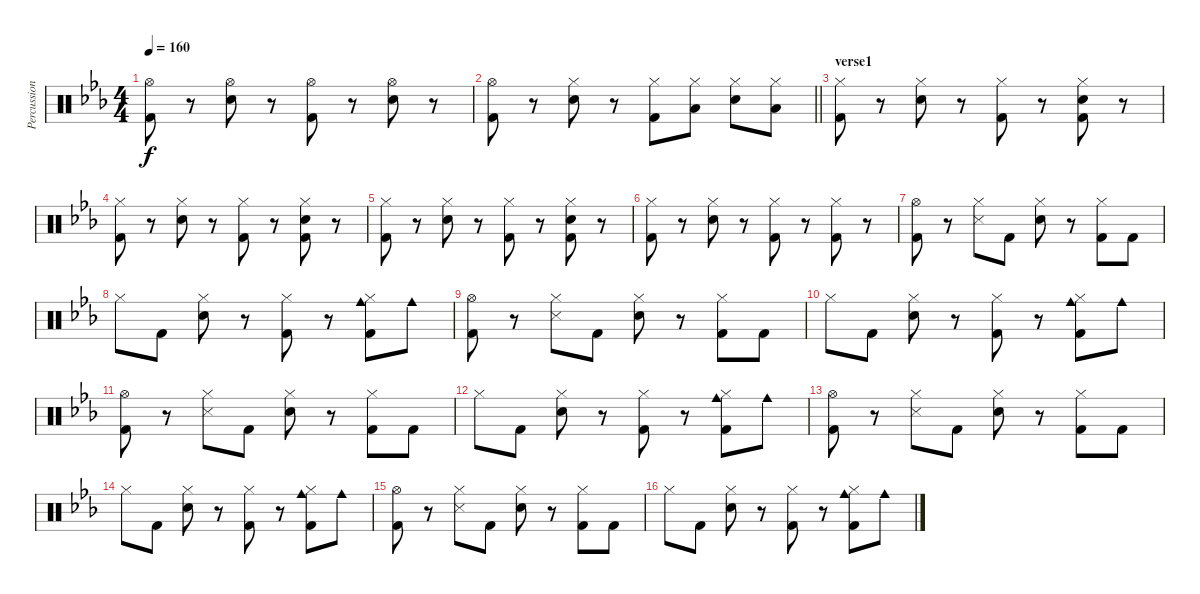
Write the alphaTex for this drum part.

\track ("Percussion" "Percussion") {instrument percussion}
\staff {score}
\articulation defaults
\ts (4 4)
\tempo 160
\clef neutral
\ks cminor
("Hi-Hat (open)" "Kick (hit) 2").8{dy f} r.8 ("Hi-Hat (open)" "Snare (hit) 2").8 r.8 ("Hi-Hat (open)" "Kick (hit) 2").8 r.8 ("Hi-Hat (open)" "Snare (hit) 2").8 r.8 |
\barLineRight lightlight
("Hi-Hat (open)" "Kick (hit) 2").8 r.8 ("Hi-Hat (closed)" "Snare (hit) 2").8 r.8 ("Hi-Hat (closed)" "Kick (hit) 2").8 ("Hi-Hat (closed)" "Low Tom (hit)").8 ("Hi-Hat (closed)" "Snare (hit) 2").8 ("Hi-Hat (closed)" "Low Tom (hit)").8 |
\section ("" "verse1")
("Hi-Hat (closed)" "Kick (hit) 2").8 r.8 ("Hi-Hat (closed)" "Snare (hit) 2").8 r.8 ("Hi-Hat (closed)" "Kick (hit) 2").8 r.8 ("Hi-Hat (closed)" "Snare (hit) 2" "Kick (hit) 2").8 r.8 |
("Hi-Hat (closed)" "Kick (hit) 2").8 r.8 ("Hi-Hat (closed)" "Snare (hit) 2").8 r.8 ("Hi-Hat (closed)" "Kick (hit) 2").8 r.8 ("Hi-Hat (closed)" "Snare (hit) 2" "Kick (hit) 2").8 r.8 |
("Hi-Hat (closed)" "Kick (hit) 2").8 r.8 ("Hi-Hat (closed)" "Snare (hit) 2").8 r.8 ("Hi-Hat (closed)" "Kick (hit) 2").8 r.8 ("Hi-Hat (closed)" "Snare (hit) 2" "Kick (hit) 2").8 r.8 |
("Hi-Hat (closed)" "Kick (hit) 2").8 r.8 ("Hi-Hat (closed)" "Snare (hit) 2").8 r.8 ("Hi-Hat (closed)" "Kick (hit) 2").8 r.8 ("Hi-Hat (closed)" "Kick (hit) 2").8 r.8 |
("Hi-Hat (open)" "Kick (hit) 2").8 r.8 ("Hi-Hat (closed)" "Snare (side stick) 3").8 "Kick (hit) 2".8 ("Hi-Hat (closed)" "Snare (hit) 2").8 r.8 ("Hi-Hat (closed)" "Kick (hit) 2").8 "Kick (hit) 2".8 |
"Hi-Hat (closed)".8 "Kick (hit) 2".8 ("Hi-Hat (closed)" "Snare (hit) 2").8 r.8 ("Hi-Hat (closed)" "Kick (hit) 2").8 r.8 ("Cowbell medium (hit)" "Hi-Hat (closed)" "Kick (hit) 2").8 "Cowbell medium (hit)".8 |
("Hi-Hat (open)" "Kick (hit) 2").8 r.8 ("Hi-Hat (closed)" "Snare (side stick) 3").8 "Kick (hit) 2".8 ("Hi-Hat (closed)" "Snare (hit) 2").8 r.8 ("Hi-Hat (closed)" "Kick (hit) 2").8 "Kick (hit) 2".8 |
"Hi-Hat (closed)".8 "Kick (hit) 2".8 ("Hi-Hat (closed)" "Snare (hit) 2").8 r.8 ("Hi-Hat (closed)" "Kick (hit) 2").8 r.8 ("Cowbell medium (hit)" "Hi-Hat (closed)" "Kick (hit) 2").8 "Cowbell medium (hit)".8 |
("Hi-Hat (open)" "Kick (hit) 2").8 r.8 ("Hi-Hat (closed)" "Snare (side stick) 3").8 "Kick (hit) 2".8 ("Hi-Hat (closed)" "Snare (hit) 2").8 r.8 ("Hi-Hat (closed)" "Kick (hit) 2").8 "Kick (hit) 2".8 |
"Hi-Hat (closed)".8 "Kick (hit) 2".8 ("Hi-Hat (closed)" "Snare (hit) 2").8 r.8 ("Hi-Hat (closed)" "Kick (hit) 2").8 r.8 ("Cowbell medium (hit)" "Hi-Hat (closed)" "Kick (hit) 2").8 "Cowbell medium (hit)".8 |
("Hi-Hat (open)" "Kick (hit) 2").8 r.8 ("Hi-Hat (closed)" "Snare (side stick) 3").8 "Kick (hit) 2".8 ("Hi-Hat (closed)" "Snare (hit) 2").8 r.8 ("Hi-Hat (closed)" "Kick (hit) 2").8 "Kick (hit) 2".8 |
"Hi-Hat (closed)".8 "Kick (hit) 2".8 ("Hi-Hat (closed)" "Snare (hit) 2").8 r.8 ("Hi-Hat (closed)" "Kick (hit) 2").8 r.8 ("Cowbell medium (hit)" "Hi-Hat (closed)" "Kick (hit) 2").8 "Cowbell medium (hit)".8 |
("Hi-Hat (open)" "Kick (hit) 2").8 r.8 ("Hi-Hat (closed)" "Snare (side stick) 3").8 "Kick (hit) 2".8 ("Hi-Hat (closed)" "Snare (hit) 2").8 r.8 ("Hi-Hat (closed)" "Kick (hit) 2").8 "Kick (hit) 2".8 |
"Hi-Hat (closed)".8 "Kick (hit) 2".8 ("Hi-Hat (closed)" "Snare (hit) 2").8 r.8 ("Hi-Hat (closed)" "Kick (hit) 2").8 r.8 ("Cowbell medium (hit)" "Hi-Hat (closed)" "Kick (hit) 2").8 "Cowbell medium (hit)".8
